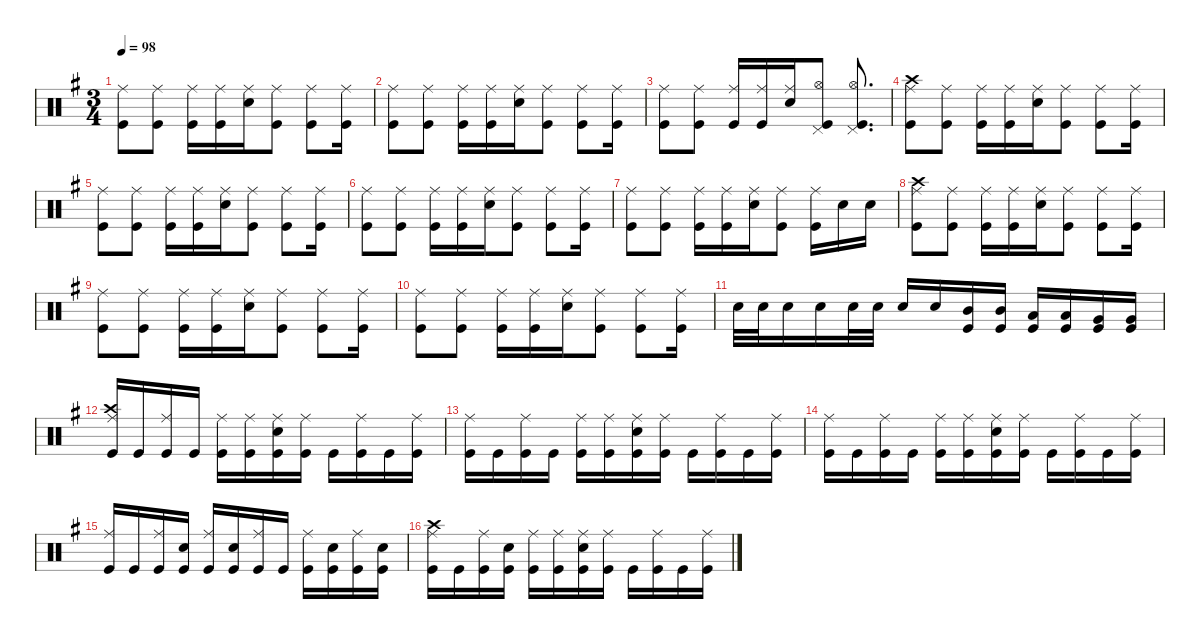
\defaultSystemsLayout 4
\hideDynamics
\bracketExtendMode nobrackets
\singleTrackTrackNamePolicy hidden
\multiTrackTrackNamePolicy hidden
\firstSystemTrackNameMode fullname
\otherSystemsTrackNameOrientation horizontal
\track ("Drums" "drm.") {instrument percussion}
\staff {score}
\articulation defaults
\ts (3 4)
\tempo 98
\clef neutral
\ks eminor
("Ride (middle)"{acc forcenatural} "Kick (hit)"{acc forcenatural}).8{dy f beam Down} ("Ride (middle)"{acc forcenatural} "Kick (hit)"{acc forcenatural}).8{beam Down} ("Ride (middle)"{acc forcenatural} "Kick (hit)"{acc forcenatural}).16{beam Down} ("Ride (middle)"{acc forcenatural} "Kick (hit)"{acc forcenatural}).16{beam Down} ("Ride (middle)"{acc forcenatural} "Snare (hit) 2"{acc forcenatural}).16{beam Down} ("Ride (middle)"{acc forcenatural} "Kick (hit)"{acc forcenatural}).8{beam Down} ("Ride (middle)"{acc forcenatural} "Kick (hit)"{acc forcenatural}).8{beam Down} ("Ride (middle)"{acc forcenatural} "Kick (hit)"{acc forcenatural}).16{beam Down} |
("Ride (middle)"{acc forcenatural} "Kick (hit)"{acc forcenatural}).8{beam Down} ("Ride (middle)"{acc forcenatural} "Kick (hit)"{acc forcenatural}).8{beam Down} ("Ride (middle)"{acc forcenatural} "Kick (hit)"{acc forcenatural}).16{beam Down} ("Ride (middle)"{acc forcenatural} "Kick (hit)"{acc forcenatural}).16{beam Down} ("Ride (middle)"{acc forcenatural} "Snare (hit) 2"{acc forcenatural}).16{beam Down} ("Ride (middle)"{acc forcenatural} "Kick (hit)"{acc forcenatural}).8{beam Down} ("Ride (middle)"{acc forcenatural} "Kick (hit)"{acc forcenatural}).8{beam Down} ("Ride (middle)"{acc forcenatural} "Kick (hit)"{acc forcenatural}).16{beam Down} |
("Ride (middle)"{acc forcenatural} "Kick (hit)"{acc forcenatural}).8{beam Down} ("Ride (middle)"{acc forcenatural} "Kick (hit)"{acc forcenatural}).8{beam Down} ("Ride (middle)"{acc forcenatural} "Kick (hit)"{acc forcenatural}).16{beam Up} ("Ride (middle)"{acc forcenatural} "Kick (hit)"{acc forcenatural}).16{beam Up} ("Ride (middle)"{acc forcenatural} "Snare (hit) 2"{acc forcenatural}).16{beam Up} ("Pedal Hi-Hat (hit)"{acc forcenatural} "Hi-Hat (open)"{acc forcenatural} "Kick (hit)"{acc forcenatural}).8{beam Up} ("Pedal Hi-Hat (hit)"{acc forcenatural} "Hi-Hat (open)"{acc forcenatural} "Kick (hit)"{acc forcenatural}).8{d beam Up} |
("Crash high (hit)"{acc forcenatural} "Ride (middle)"{acc forcenatural} "Kick (hit)"{acc forcenatural}).8{beam Down} ("Ride (middle)"{acc forcenatural} "Kick (hit)"{acc forcenatural}).8{beam Down} ("Ride (middle)"{acc forcenatural} "Kick (hit)"{acc forcenatural}).16{beam Down} ("Ride (middle)"{acc forcenatural} "Kick (hit)"{acc forcenatural}).16{beam Down} ("Ride (middle)"{acc forcenatural} "Snare (hit) 2"{acc forcenatural}).16{beam Down} ("Ride (middle)"{acc forcenatural} "Kick (hit)"{acc forcenatural}).8{beam Down} ("Ride (middle)"{acc forcenatural} "Kick (hit)"{acc forcenatural}).8{beam Down} ("Ride (middle)"{acc forcenatural} "Kick (hit)"{acc forcenatural}).16{beam Down} |
("Ride (middle)"{acc forcenatural} "Kick (hit)"{acc forcenatural}).8{beam Down} ("Ride (middle)"{acc forcenatural} "Kick (hit)"{acc forcenatural}).8{beam Down} ("Ride (middle)"{acc forcenatural} "Kick (hit)"{acc forcenatural}).16{beam Down} ("Ride (middle)"{acc forcenatural} "Kick (hit)"{acc forcenatural}).16{beam Down} ("Ride (middle)"{acc forcenatural} "Snare (hit) 2"{acc forcenatural}).16{beam Down} ("Ride (middle)"{acc forcenatural} "Kick (hit)"{acc forcenatural}).8{beam Down} ("Ride (middle)"{acc forcenatural} "Kick (hit)"{acc forcenatural}).8{beam Down} ("Ride (middle)"{acc forcenatural} "Kick (hit)"{acc forcenatural}).16{beam Down} |
("Ride (middle)"{acc forcenatural} "Kick (hit)"{acc forcenatural}).8{beam Down} ("Ride (middle)"{acc forcenatural} "Kick (hit)"{acc forcenatural}).8{beam Down} ("Ride (middle)"{acc forcenatural} "Kick (hit)"{acc forcenatural}).16{beam Down} ("Ride (middle)"{acc forcenatural} "Kick (hit)"{acc forcenatural}).16{beam Down} ("Ride (middle)"{acc forcenatural} "Snare (hit) 2"{acc forcenatural}).16{beam Down} ("Ride (middle)"{acc forcenatural} "Kick (hit)"{acc forcenatural}).8{beam Down} ("Ride (middle)"{acc forcenatural} "Kick (hit)"{acc forcenatural}).8{beam Down} ("Ride (middle)"{acc forcenatural} "Kick (hit)"{acc forcenatural}).16{beam Down} |
("Ride (middle)"{acc forcenatural} "Kick (hit)"{acc forcenatural}).8{beam Down} ("Ride (middle)"{acc forcenatural} "Kick (hit)"{acc forcenatural}).8{beam Down} ("Ride (middle)"{acc forcenatural} "Kick (hit)"{acc forcenatural}).16{beam Down} ("Ride (middle)"{acc forcenatural} "Kick (hit)"{acc forcenatural}).16{beam Down} ("Ride (middle)"{acc forcenatural} "Snare (hit) 2"{acc forcenatural}).16{beam Down} ("Ride (middle)"{acc forcenatural} "Kick (hit)"{acc forcenatural}).8{beam Down} ("Ride (middle)"{acc forcenatural} "Kick (hit)"{acc forcenatural}).16{beam Down} "Snare (hit) 2"{acc forcenatural}.16{beam Down} "Snare (hit) 2"{acc forcenatural}.16{beam Down} |
("Crash high (hit)"{acc forcenatural} "Ride (middle)"{acc forcenatural} "Kick (hit)"{acc forcenatural}).8{beam Down} ("Ride (middle)"{acc forcenatural} "Kick (hit)"{acc forcenatural}).8{beam Down} ("Ride (middle)"{acc forcenatural} "Kick (hit)"{acc forcenatural}).16{beam Down} ("Ride (middle)"{acc forcenatural} "Kick (hit)"{acc forcenatural}).16{beam Down} ("Ride (middle)"{acc forcenatural} "Snare (hit) 2"{acc forcenatural}).16{beam Down} ("Ride (middle)"{acc forcenatural} "Kick (hit)"{acc forcenatural}).8{beam Down} ("Ride (middle)"{acc forcenatural} "Kick (hit)"{acc forcenatural}).8{beam Down} ("Ride (middle)"{acc forcenatural} "Kick (hit)"{acc forcenatural}).16{beam Down} |
("Ride (middle)"{acc forcenatural} "Kick (hit)"{acc forcenatural}).8{beam Down} ("Ride (middle)"{acc forcenatural} "Kick (hit)"{acc forcenatural}).8{beam Down} ("Ride (middle)"{acc forcenatural} "Kick (hit)"{acc forcenatural}).16{beam Down} ("Ride (middle)"{acc forcenatural} "Kick (hit)"{acc forcenatural}).16{beam Down} ("Ride (middle)"{acc forcenatural} "Snare (hit) 2"{acc forcenatural}).16{beam Down} ("Ride (middle)"{acc forcenatural} "Kick (hit)"{acc forcenatural}).8{beam Down} ("Ride (middle)"{acc forcenatural} "Kick (hit)"{acc forcenatural}).8{beam Down} ("Ride (middle)"{acc forcenatural} "Kick (hit)"{acc forcenatural}).16{beam Down} |
("Ride (middle)"{acc forcenatural} "Kick (hit)"{acc forcenatural}).8{beam Down} ("Ride (middle)"{acc forcenatural} "Kick (hit)"{acc forcenatural}).8{beam Down} ("Ride (middle)"{acc forcenatural} "Kick (hit)"{acc forcenatural}).16{beam Down} ("Ride (middle)"{acc forcenatural} "Kick (hit)"{acc forcenatural}).16{beam Down} ("Ride (middle)"{acc forcenatural} "Snare (hit) 2"{acc forcenatural}).16{beam Down} ("Ride (middle)"{acc forcenatural} "Kick (hit)"{acc forcenatural}).8{beam Down} ("Ride (middle)"{acc forcenatural} "Kick (hit)"{acc forcenatural}).8{beam Down} ("Ride (middle)"{acc forcenatural} "Kick (hit)"{acc forcenatural}).16{beam Down} |
"Snare (hit) 2"{acc forcenatural}.32{beam Down} "Snare (hit) 2"{acc forcenatural}.32{beam Down} "Snare (hit) 2"{acc forcenatural}.16{beam Down} "Snare (hit) 2"{acc forcenatural}.16{beam Down} "Snare (hit) 2"{acc forcenatural}.32{beam Down} "Snare (hit) 2"{acc forcenatural}.32{beam Down} "Snare (hit) 2"{acc forcenatural}.16{beam Up} "Snare (hit) 2"{acc forcenatural}.16{beam Up} ("Mid Tom (hit)"{acc forcenatural} "Kick (hit)"{acc forcenatural}).16{beam Up} ("Mid Tom (hit)"{acc forcenatural} "Kick (hit)"{acc forcenatural}).16{beam Up} ("Low Tom (hit)"{acc forcenatural} "Kick (hit)"{acc forcenatural}).16{beam Up} ("Low Tom (hit)"{acc forcenatural} "Kick (hit)"{acc forcenatural}).16{beam Up} ("Very Low Tom (hit)"{acc forcenatural} "Kick (hit)"{acc forcenatural}).16{beam Up} ("Very Low Tom (hit)"{acc forcenatural} "Kick (hit)"{acc forcenatural}).16{beam Up} |
("Crash high (hit)"{acc forcenatural} "Ride (middle)"{acc forcenatural} "Kick (hit)"{acc forcenatural}).16{beam Up} "Kick (hit)"{acc forcenatural}.16{beam Up} ("Ride (middle)"{acc forcenatural} "Kick (hit)"{acc forcenatural}).16{beam Up} "Kick (hit)"{acc forcenatural}.16{beam Up} ("Ride (middle)"{acc forcenatural} "Kick (hit)"{acc forcenatural}).16{beam Down} ("Ride (middle)"{acc forcenatural} "Kick (hit)"{acc forcenatural}).16{beam Down} ("Ride (middle)"{acc forcenatural} "Snare (hit) 2"{acc forcenatural} "Kick (hit)"{acc forcenatural}).16{beam Down} ("Ride (middle)"{acc forcenatural} "Kick (hit)"{acc forcenatural}).16{beam Down} "Kick (hit)"{acc forcenatural}.16{beam Down} ("Ride (middle)"{acc forcenatural} "Kick (hit)"{acc forcenatural}).16{beam Down} "Kick (hit)"{acc forcenatural}.16{beam Down} ("Ride (middle)"{acc forcenatural} "Kick (hit)"{acc forcenatural}).16{beam Down} |
("Ride (middle)"{acc forcenatural} "Kick (hit)"{acc forcenatural}).16{beam Down} "Kick (hit)"{acc forcenatural}.16{beam Down} ("Ride (middle)"{acc forcenatural} "Kick (hit)"{acc forcenatural}).16{beam Down} "Kick (hit)"{acc forcenatural}.16{beam Down} ("Ride (middle)"{acc forcenatural} "Kick (hit)"{acc forcenatural}).16{beam Down} ("Ride (middle)"{acc forcenatural} "Kick (hit)"{acc forcenatural}).16{beam Down} ("Ride (middle)"{acc forcenatural} "Snare (hit) 2"{acc forcenatural} "Kick (hit)"{acc forcenatural}).16{beam Down} ("Ride (middle)"{acc forcenatural} "Kick (hit)"{acc forcenatural}).16{beam Down} "Kick (hit)"{acc forcenatural}.16{beam Down} ("Ride (middle)"{acc forcenatural} "Kick (hit)"{acc forcenatural}).16{beam Down} "Kick (hit)"{acc forcenatural}.16{beam Down} ("Ride (middle)"{acc forcenatural} "Kick (hit)"{acc forcenatural}).16{beam Down} |
("Ride (middle)"{acc forcenatural} "Kick (hit)"{acc forcenatural}).16{beam Down} "Kick (hit)"{acc forcenatural}.16{beam Down} ("Ride (middle)"{acc forcenatural} "Kick (hit)"{acc forcenatural}).16{beam Down} "Kick (hit)"{acc forcenatural}.16{beam Down} ("Ride (middle)"{acc forcenatural} "Kick (hit)"{acc forcenatural}).16{beam Down} ("Ride (middle)"{acc forcenatural} "Kick (hit)"{acc forcenatural}).16{beam Down} ("Ride (middle)"{acc forcenatural} "Snare (hit) 2"{acc forcenatural} "Kick (hit)"{acc forcenatural}).16{beam Down} ("Ride (middle)"{acc forcenatural} "Kick (hit)"{acc forcenatural}).16{beam Down} "Kick (hit)"{acc forcenatural}.16{beam Down} ("Ride (middle)"{acc forcenatural} "Kick (hit)"{acc forcenatural}).16{beam Down} "Kick (hit)"{acc forcenatural}.16{beam Down} ("Ride (middle)"{acc forcenatural} "Kick (hit)"{acc forcenatural}).16{beam Down} |
("Ride (middle)"{acc forcenatural} "Kick (hit)"{acc forcenatural}).16{beam Up} "Kick (hit)"{acc forcenatural}.16{beam Up} ("Ride (middle)"{acc forcenatural} "Kick (hit)"{acc forcenatural}).16{beam Up} ("Snare (hit) 2"{acc forcenatural} "Kick (hit)"{acc forcenatural}).16{beam Up} ("Ride (middle)"{acc forcenatural} "Kick (hit)"{acc forcenatural}).16{beam Up} ("Snare (hit) 2"{acc forcenatural} "Kick (hit)"{acc forcenatural}).16{beam Up} ("Ride (middle)"{acc forcenatural} "Kick (hit)"{acc forcenatural}).16{beam Up} "Kick (hit)"{acc forcenatural}.16{beam Up} ("Ride (middle)"{acc forcenatural} "Kick (hit)"{acc forcenatural}).16{beam Down} ("Snare (hit) 2"{acc forcenatural} "Kick (hit)"{acc forcenatural}).16{beam Down} ("Ride (middle)"{acc forcenatural} "Kick (hit)"{acc forcenatural}).16{beam Down} ("Snare (hit) 2"{acc forcenatural} "Kick (hit)"{acc forcenatural}).16{beam Down} |
("Crash high (hit)"{acc forcenatural} "Ride (middle)"{acc forcenatural} "Kick (hit)"{acc forcenatural}).16{beam Down} "Kick (hit)"{acc forcenatural}.16{beam Down} ("Ride (middle)"{acc forcenatural} "Kick (hit)"{acc forcenatural}).16{beam Down} ("Snare (hit) 2"{acc forcenatural} "Kick (hit)"{acc forcenatural}).16{beam Down} ("Ride (middle)"{acc forcenatural} "Kick (hit)"{acc forcenatural}).16{beam Down} ("Ride (middle)"{acc forcenatural} "Kick (hit)"{acc forcenatural}).16{beam Down} ("Ride (middle)"{acc forcenatural} "Snare (hit) 2"{acc forcenatural} "Kick (hit)"{acc forcenatural}).16{beam Down} ("Ride (middle)"{acc forcenatural} "Kick (hit)"{acc forcenatural}).16{beam Down} "Kick (hit)"{acc forcenatural}.16{beam Down} ("Ride (middle)"{acc forcenatural} "Kick (hit)"{acc forcenatural}).16{beam Down} "Kick (hit)"{acc forcenatural}.16{beam Down} ("Ride (middle)"{acc forcenatural} "Kick (hit)"{acc forcenatural}).16{beam Down}
